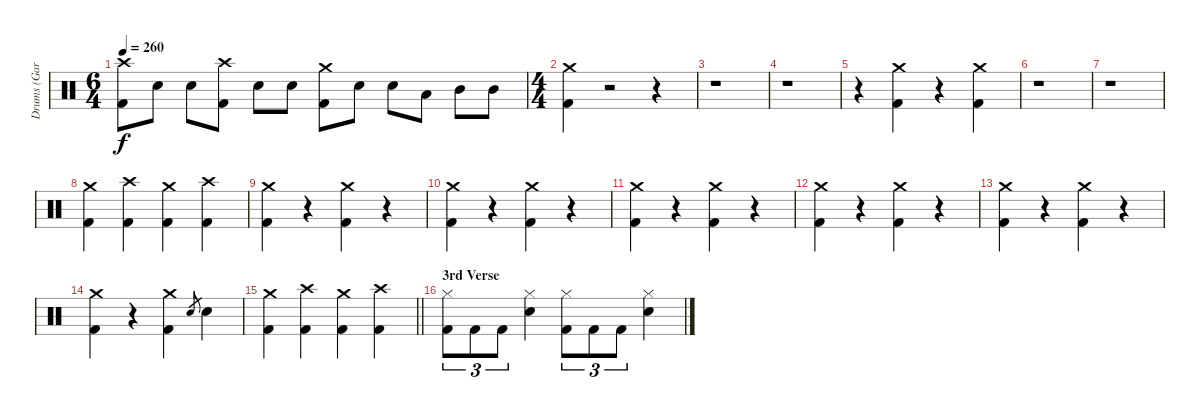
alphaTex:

\track ("Drums (Gar Samuelson)" "Drums (Gar") {instrument percussion}
\staff {score}
\articulation defaults
\ts (6 4)
\tempo 260
\clef neutral
\ks c
("Crash high (hit)" "Kick (hit) 2").8{dy f} "Snare (hit) 2".8 "Snare (hit) 2".8 ("Crash high (hit)" "Kick (hit) 2").8 "Snare (hit) 2".8 "Snare (hit) 2".8 ("Crash medium (hit)" "Kick (hit) 2").8 "Snare (hit) 2".8 "Snare (hit) 2".8 "Low Tom (hit)".8 "Mid Tom (hit)".8 "Mid Tom (hit)".8 |
\ts (4 4)
("Crash medium (hit)" "Kick (hit) 2").4 r.2 r.4 |
r.1 |
r.1 |
r.4 ("Crash medium (hit)" "Kick (hit) 2").4 r.4 ("Crash medium (hit)" "Kick (hit) 2").4 |
r.1 |
r.1 |
("Crash medium (hit)" "Kick (hit) 2").4 ("Crash high (hit)" "Kick (hit) 2").4 ("Crash medium (hit)" "Kick (hit) 2").4 ("Crash high (hit)" "Kick (hit) 2").4 |
("Crash medium (hit)" "Kick (hit) 2").4 r.4 ("Crash medium (hit)" "Kick (hit) 2").4 r.4 |
("Crash medium (hit)" "Kick (hit) 2").4 r.4 ("Crash medium (hit)" "Kick (hit) 2").4 r.4 |
("Crash medium (hit)" "Kick (hit) 2").4 r.4 ("Crash medium (hit)" "Kick (hit) 2").4 r.4 |
("Crash medium (hit)" "Kick (hit) 2").4 r.4 ("Crash medium (hit)" "Kick (hit) 2").4 r.4 |
("Crash medium (hit)" "Kick (hit) 2").4 r.4 ("Crash medium (hit)" "Kick (hit) 2").4 r.4 |
("Crash medium (hit)" "Kick (hit) 2").4 r.4 ("Crash medium (hit)" "Kick (hit) 2").4 "Snare (hit) 2".8{gr} "Snare (hit) 2".4 |
\barLineRight lightlight
("Crash medium (hit)" "Kick (hit) 2").4 ("Crash high (hit)" "Kick (hit) 2").4 ("Crash medium (hit)" "Kick (hit) 2").4 ("Crash high (hit)" "Kick (hit) 2").4 |
\section ("" "3rd Verse")
("Hi-Hat (closed)" "Kick (hit) 2").8{tu (3 2)} "Kick (hit) 2".8{tu (3 2)} "Kick (hit) 2".8{tu (3 2)} ("Hi-Hat (closed)" "Snare (hit) 2").4 ("Hi-Hat (closed)" "Kick (hit) 2").8{tu (3 2)} "Kick (hit) 2".8{tu (3 2)} "Kick (hit) 2".8{tu (3 2)} ("Hi-Hat (closed)" "Snare (hit) 2").4
